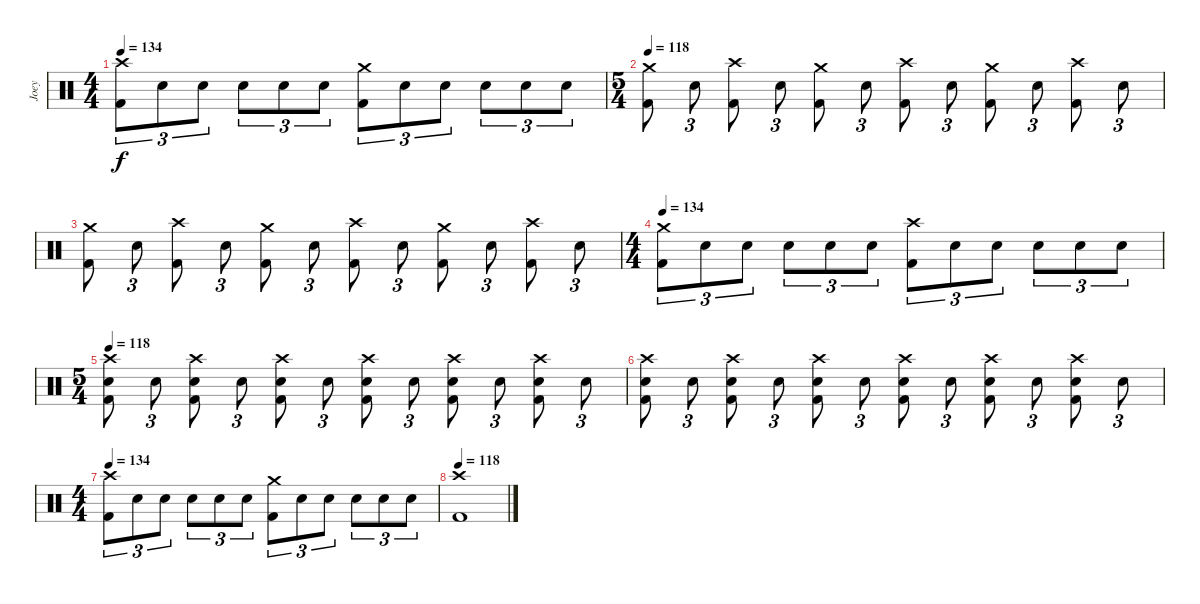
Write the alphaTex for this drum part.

\track ("Joey" "Joey") {instrument percussion}
\staff {score}
\articulation defaults
\ts (4 4)
\tempo 134
\clef neutral
\ks c
("Crash high (hit)" "Kick (hit) 2").8{tu (3 2) dy f} "Electric Snare (hit)".8{tu (3 2)} "Electric Snare (hit)".8{tu (3 2)} "Electric Snare (hit)".8{tu (3 2)} "Electric Snare (hit)".8{tu (3 2)} "Electric Snare (hit)".8{tu (3 2)} ("Crash medium (hit)" "Kick (hit) 2").8{tu (3 2)} "Electric Snare (hit)".8{tu (3 2)} "Electric Snare (hit)".8{tu (3 2)} "Electric Snare (hit)".8{tu (3 2)} "Electric Snare (hit)".8{tu (3 2)} "Electric Snare (hit)".8{tu (3 2)} |
\ts (5 4)
\tempo 118
("Crash medium (hit)" "Kick (hit) 2").8 "Electric Snare (hit)".8{tu (3 2)} ("Crash high (hit)" "Kick (hit) 2").8 "Electric Snare (hit)".8{tu (3 2)} ("Crash medium (hit)" "Kick (hit) 2").8 "Electric Snare (hit)".8{tu (3 2)} ("Crash high (hit)" "Kick (hit) 2").8 "Electric Snare (hit)".8{tu (3 2)} ("Crash medium (hit)" "Kick (hit) 2").8 "Electric Snare (hit)".8{tu (3 2)} ("Crash high (hit)" "Kick (hit) 2").8 "Electric Snare (hit)".8{tu (3 2)} |
("Crash medium (hit)" "Kick (hit) 2").8 "Electric Snare (hit)".8{tu (3 2)} ("Crash high (hit)" "Kick (hit) 2").8 "Electric Snare (hit)".8{tu (3 2)} ("Crash medium (hit)" "Kick (hit) 2").8 "Electric Snare (hit)".8{tu (3 2)} ("Crash high (hit)" "Kick (hit) 2").8 "Electric Snare (hit)".8{tu (3 2)} ("Crash medium (hit)" "Kick (hit) 2").8 "Electric Snare (hit)".8{tu (3 2)} ("Crash high (hit)" "Kick (hit) 2").8 "Electric Snare (hit)".8{tu (3 2)} |
\ts (4 4)
\tempo 134
("Crash medium (hit)" "Kick (hit) 2").8{tu (3 2)} "Electric Snare (hit)".8{tu (3 2)} "Electric Snare (hit)".8{tu (3 2)} "Electric Snare (hit)".8{tu (3 2)} "Electric Snare (hit)".8{tu (3 2)} "Electric Snare (hit)".8{tu (3 2)} ("Crash high (hit)" "Kick (hit) 2").8{tu (3 2)} "Electric Snare (hit)".8{tu (3 2)} "Electric Snare (hit)".8{tu (3 2)} "Electric Snare (hit)".8{tu (3 2)} "Electric Snare (hit)".8{tu (3 2)} "Electric Snare (hit)".8{tu (3 2)} |
\ts (5 4)
\tempo 118
("Crash high (hit)" "Electric Snare (hit)" "Kick (hit) 2").8 "Electric Snare (hit)".8{tu (3 2)} ("Crash high (hit)" "Electric Snare (hit)" "Kick (hit) 2").8 "Electric Snare (hit)".8{tu (3 2)} ("Crash high (hit)" "Electric Snare (hit)" "Kick (hit) 2").8 "Electric Snare (hit)".8{tu (3 2)} ("Crash high (hit)" "Electric Snare (hit)" "Kick (hit) 2").8 "Electric Snare (hit)".8{tu (3 2)} ("Crash high (hit)" "Electric Snare (hit)" "Kick (hit) 2").8 "Electric Snare (hit)".8{tu (3 2)} ("Crash high (hit)" "Electric Snare (hit)" "Kick (hit) 2").8 "Electric Snare (hit)".8{tu (3 2)} |
("Crash high (hit)" "Electric Snare (hit)" "Kick (hit) 2").8 "Electric Snare (hit)".8{tu (3 2)} ("Crash high (hit)" "Electric Snare (hit)" "Kick (hit) 2").8 "Electric Snare (hit)".8{tu (3 2)} ("Crash high (hit)" "Electric Snare (hit)" "Kick (hit) 2").8 "Electric Snare (hit)".8{tu (3 2)} ("Crash high (hit)" "Electric Snare (hit)" "Kick (hit) 2").8 "Electric Snare (hit)".8{tu (3 2)} ("Crash high (hit)" "Electric Snare (hit)" "Kick (hit) 2").8 "Electric Snare (hit)".8{tu (3 2)} ("Crash high (hit)" "Electric Snare (hit)" "Kick (hit) 2").8 "Electric Snare (hit)".8{tu (3 2)} |
\ts (4 4)
\tempo 134
("Crash high (hit)" "Kick (hit) 2").8{tu (3 2)} "Electric Snare (hit)".8{tu (3 2)} "Electric Snare (hit)".8{tu (3 2)} "Electric Snare (hit)".8{tu (3 2)} "Electric Snare (hit)".8{tu (3 2)} "Electric Snare (hit)".8{tu (3 2)} ("Crash medium (hit)" "Kick (hit) 2").8{tu (3 2)} "Electric Snare (hit)".8{tu (3 2)} "Electric Snare (hit)".8{tu (3 2)} "Electric Snare (hit)".8{tu (3 2)} "Electric Snare (hit)".8{tu (3 2)} "Electric Snare (hit)".8{tu (3 2)} |
\tempo 118
("Crash high (hit)" "Kick (hit) 2").1
